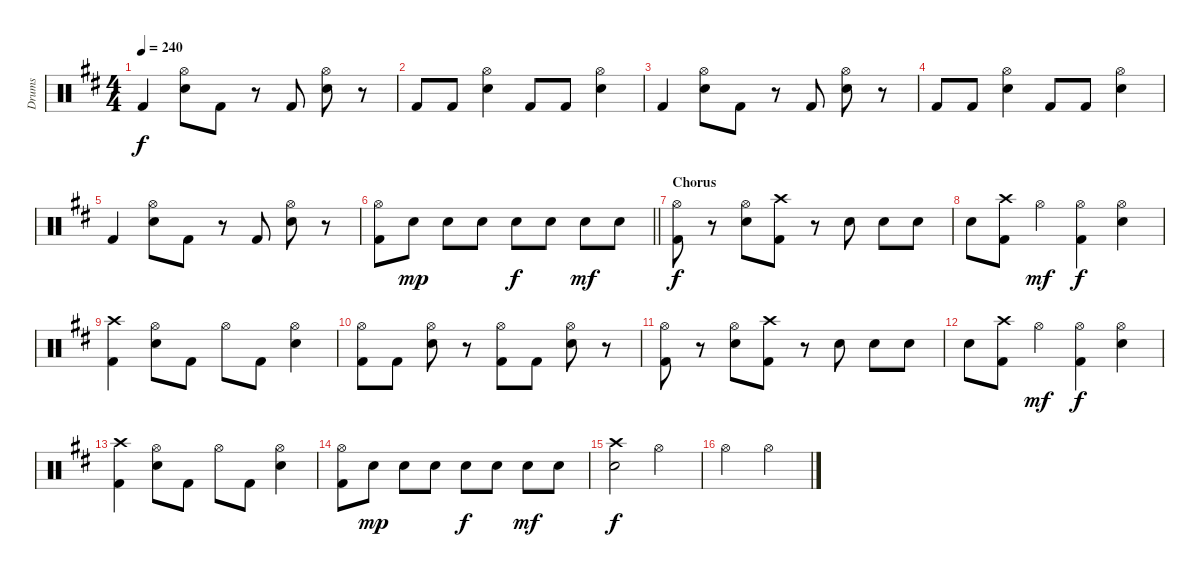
\track ("Drums" "Drums") {instrument percussion}
\staff {score}
\articulation defaults
\ts (4 4)
\tempo 240
\clef neutral
\ks d "Kick (hit) 2".4{dy f}
("Hi-Hat (open)" "Electric Snare (hit)").8 "Kick (hit) 2".8 r.8 "Kick (hit) 2".8 ("Hi-Hat (open)" "Electric Snare (hit)").8 r.8 |
"Kick (hit) 2".8 "Kick (hit) 2".8 ("Hi-Hat (open)" "Electric Snare (hit)").4 "Kick (hit) 2".8 "Kick (hit) 2".8 ("Hi-Hat (open)" "Electric Snare (hit)").4 |
"Kick (hit) 2".4 ("Hi-Hat (open)" "Electric Snare (hit)").8 "Kick (hit) 2".8 r.8 "Kick (hit) 2".8 ("Hi-Hat (open)" "Electric Snare (hit)").8 r.8 |
"Kick (hit) 2".8 "Kick (hit) 2".8 ("Hi-Hat (open)" "Electric Snare (hit)").4 "Kick (hit) 2".8 "Kick (hit) 2".8 ("Hi-Hat (open)" "Electric Snare (hit)").4 |
"Kick (hit) 2".4 ("Hi-Hat (open)" "Electric Snare (hit)").8 "Kick (hit) 2".8 r.8 "Kick (hit) 2".8 ("Hi-Hat (open)" "Electric Snare (hit)").8 r.8 |
\barLineRight lightlight
("Hi-Hat (open)" "Kick (hit) 2").8 "Electric Snare (hit)".8{dy mp} "Electric Snare (hit)".8 "Electric Snare (hit)".8 "Electric Snare (hit)".8{dy f} "Electric Snare (hit)".8 "Electric Snare (hit)".8{dy mf} "Electric Snare (hit)".8 |
\section ("" "Chorus")
("Hi-Hat (open)" "Kick (hit) 2").8{dy f} r.8 ("Hi-Hat (open)" "Electric Snare (hit)").8 ("Crash high (hit)" "Kick (hit) 2").8 r.8 "Electric Snare (hit)".8 "Electric Snare (hit)".8 "Electric Snare (hit)".8 |
"Electric Snare (hit)".8 ("Crash high (hit)" "Kick (hit) 2").8 "Hi-Hat (open)".4{dy mf} ("Hi-Hat (open)" "Kick (hit) 2").4{dy f} ("Hi-Hat (open)" "Electric Snare (hit)").4 |
("Crash high (hit)" "Kick (hit) 2").4 ("Hi-Hat (open)" "Electric Snare (hit)").8 "Kick (hit) 2".8 "Hi-Hat (open)".8 "Kick (hit) 2".8 ("Hi-Hat (open)" "Electric Snare (hit)").4 |
("Hi-Hat (open)" "Kick (hit) 2").8 "Kick (hit) 2".8 ("Hi-Hat (open)" "Electric Snare (hit)").8 r.8 ("Hi-Hat (open)" "Kick (hit) 2").8 "Kick (hit) 2".8 ("Hi-Hat (open)" "Electric Snare (hit)").8 r.8 |
("Hi-Hat (open)" "Kick (hit) 2").8 r.8 ("Hi-Hat (open)" "Electric Snare (hit)").8 ("Crash high (hit)" "Kick (hit) 2").8 r.8 "Electric Snare (hit)".8 "Electric Snare (hit)".8 "Electric Snare (hit)".8 |
"Electric Snare (hit)".8 ("Crash high (hit)" "Kick (hit) 2").8 "Hi-Hat (open)".4{dy mf} ("Hi-Hat (open)" "Kick (hit) 2").4{dy f} ("Hi-Hat (open)" "Electric Snare (hit)").4 |
("Crash high (hit)" "Kick (hit) 2").4 ("Hi-Hat (open)" "Electric Snare (hit)").8 "Kick (hit) 2".8 "Hi-Hat (open)".8 "Kick (hit) 2".8 ("Hi-Hat (open)" "Electric Snare (hit)").4 |
("Hi-Hat (open)" "Kick (hit) 2").8 "Electric Snare (hit)".8{dy mp} "Electric Snare (hit)".8 "Electric Snare (hit)".8 "Electric Snare (hit)".8{dy f} "Electric Snare (hit)".8 "Electric Snare (hit)".8{dy mf} "Electric Snare (hit)".8 |
("Crash high (hit)" "Hand Clap (hit)").2{dy f} "Hi-Hat (open)".2 |
"Hi-Hat (open)".2 "Hi-Hat (open)".2
